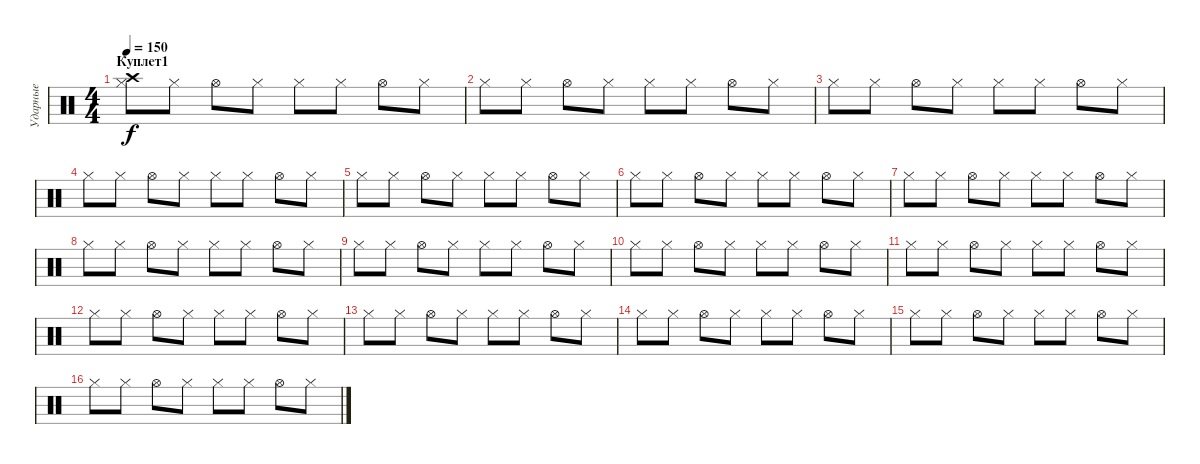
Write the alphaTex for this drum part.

\track ("Ударные" "Ударные") {instrument percussion}
\staff {score}
\articulation defaults
\ts (4 4)
\section ("" "Куплет1")
\tempo 150
\clef neutral
\ks c
("Hi-Hat (closed)" "Crash high (hit)").8{dy f} "Hi-Hat (closed)".8 "Hi-Hat (open)".8 "Hi-Hat (closed)".8 "Hi-Hat (closed)".8 "Hi-Hat (closed)".8 "Hi-Hat (open)".8 "Hi-Hat (closed)".8 |
"Hi-Hat (closed)".8 "Hi-Hat (closed)".8 "Hi-Hat (open)".8 "Hi-Hat (closed)".8 "Hi-Hat (closed)".8 "Hi-Hat (closed)".8 "Hi-Hat (open)".8 "Hi-Hat (closed)".8 |
"Hi-Hat (closed)".8 "Hi-Hat (closed)".8 "Hi-Hat (open)".8 "Hi-Hat (closed)".8 "Hi-Hat (closed)".8 "Hi-Hat (closed)".8 "Hi-Hat (open)".8 "Hi-Hat (closed)".8 |
"Hi-Hat (closed)".8 "Hi-Hat (closed)".8 "Hi-Hat (open)".8 "Hi-Hat (closed)".8 "Hi-Hat (closed)".8 "Hi-Hat (closed)".8 "Hi-Hat (open)".8 "Hi-Hat (closed)".8 |
"Hi-Hat (closed)".8 "Hi-Hat (closed)".8 "Hi-Hat (open)".8 "Hi-Hat (closed)".8 "Hi-Hat (closed)".8 "Hi-Hat (closed)".8 "Hi-Hat (open)".8 "Hi-Hat (closed)".8 |
"Hi-Hat (closed)".8 "Hi-Hat (closed)".8 "Hi-Hat (open)".8 "Hi-Hat (closed)".8 "Hi-Hat (closed)".8 "Hi-Hat (closed)".8 "Hi-Hat (open)".8 "Hi-Hat (closed)".8 |
"Hi-Hat (closed)".8 "Hi-Hat (closed)".8 "Hi-Hat (open)".8 "Hi-Hat (closed)".8 "Hi-Hat (closed)".8 "Hi-Hat (closed)".8 "Hi-Hat (open)".8 "Hi-Hat (closed)".8 |
"Hi-Hat (closed)".8 "Hi-Hat (closed)".8 "Hi-Hat (open)".8 "Hi-Hat (closed)".8 "Hi-Hat (closed)".8 "Hi-Hat (closed)".8 "Hi-Hat (open)".8 "Hi-Hat (closed)".8 |
"Hi-Hat (closed)".8 "Hi-Hat (closed)".8 "Hi-Hat (open)".8 "Hi-Hat (closed)".8 "Hi-Hat (closed)".8 "Hi-Hat (closed)".8 "Hi-Hat (open)".8 "Hi-Hat (closed)".8 |
"Hi-Hat (closed)".8 "Hi-Hat (closed)".8 "Hi-Hat (open)".8 "Hi-Hat (closed)".8 "Hi-Hat (closed)".8 "Hi-Hat (closed)".8 "Hi-Hat (open)".8 "Hi-Hat (closed)".8 |
"Hi-Hat (closed)".8 "Hi-Hat (closed)".8 "Hi-Hat (open)".8 "Hi-Hat (closed)".8 "Hi-Hat (closed)".8 "Hi-Hat (closed)".8 "Hi-Hat (open)".8 "Hi-Hat (closed)".8 |
"Hi-Hat (closed)".8 "Hi-Hat (closed)".8 "Hi-Hat (open)".8 "Hi-Hat (closed)".8 "Hi-Hat (closed)".8 "Hi-Hat (closed)".8 "Hi-Hat (open)".8 "Hi-Hat (closed)".8 |
"Hi-Hat (closed)".8 "Hi-Hat (closed)".8 "Hi-Hat (open)".8 "Hi-Hat (closed)".8 "Hi-Hat (closed)".8 "Hi-Hat (closed)".8 "Hi-Hat (open)".8 "Hi-Hat (closed)".8 |
"Hi-Hat (closed)".8 "Hi-Hat (closed)".8 "Hi-Hat (open)".8 "Hi-Hat (closed)".8 "Hi-Hat (closed)".8 "Hi-Hat (closed)".8 "Hi-Hat (open)".8 "Hi-Hat (closed)".8 |
"Hi-Hat (closed)".8 "Hi-Hat (closed)".8 "Hi-Hat (open)".8 "Hi-Hat (closed)".8 "Hi-Hat (closed)".8 "Hi-Hat (closed)".8 "Hi-Hat (open)".8 "Hi-Hat (closed)".8 |
"Hi-Hat (closed)".8 "Hi-Hat (closed)".8 "Hi-Hat (open)".8 "Hi-Hat (closed)".8 "Hi-Hat (closed)".8 "Hi-Hat (closed)".8 "Hi-Hat (open)".8 "Hi-Hat (closed)".8
